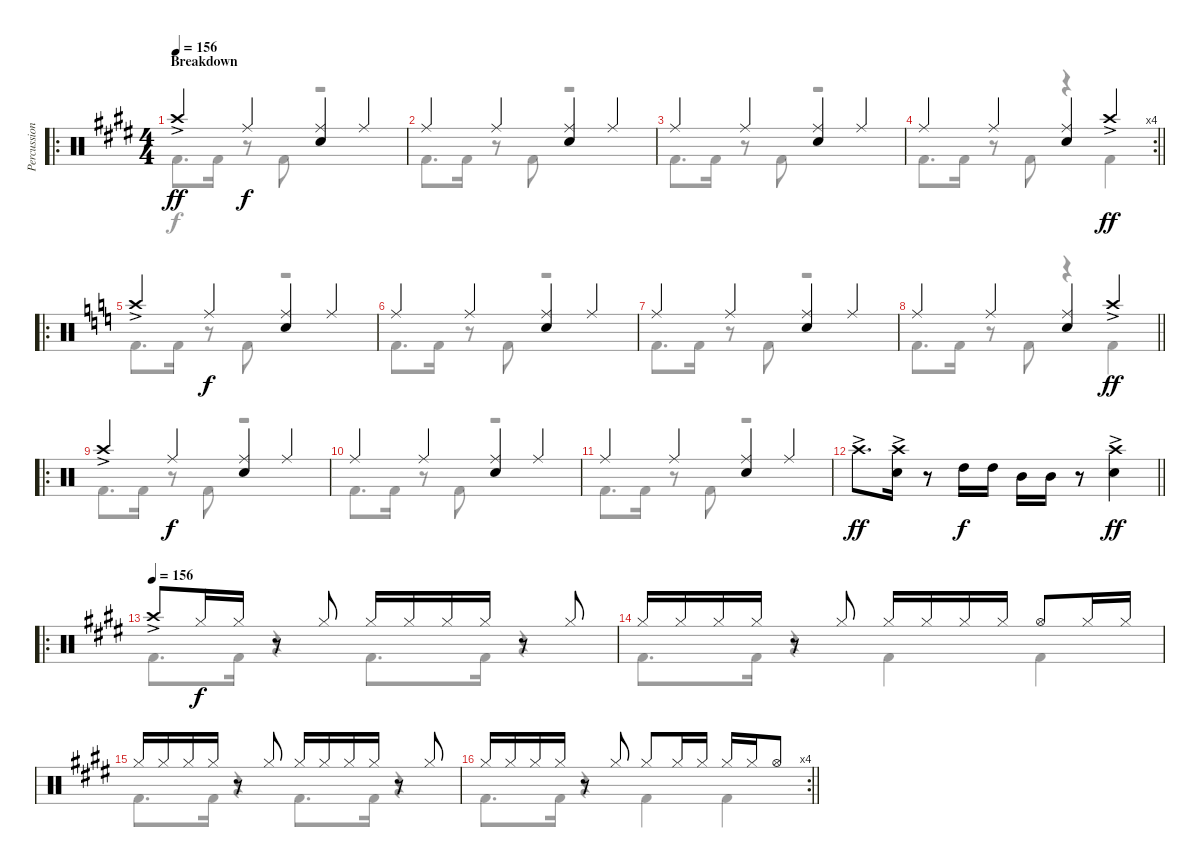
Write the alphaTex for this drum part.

\track ("Percussion" "Percussion") {instrument percussion}
\staff {score}
\articulation defaults
\voice
\ro
\ts (4 4)
\section ("" "Breakdown")
\tempo 156
\clef neutral
\ks c#minor "Crash high (hit)"{ac}.4{dy ff} "Ride (middle)".4{dy f}
("Ride (middle)" "Snare (hit) 2").4 "Ride (middle)".4 |
"Ride (middle)".4 "Ride (middle)".4 ("Ride (middle)" "Snare (hit) 2").4 "Ride (middle)".4 |
"Ride (middle)".4 "Ride (middle)".4 ("Ride (middle)" "Snare (hit) 2").4 "Ride (middle)".4 |
\rc 4
\barLineRight lightlight "Ride (middle)".4 "Ride (middle)".4
("Ride (middle)" "Snare (hit) 2").4 "Crash high (hit)"{ac}.4{dy ff} |
\ro
\ks c "Crash high (hit)"{ac}.4 "Ride (middle)".4{dy f}
("Ride (middle)" "Snare (hit) 2").4 "Ride (middle)".4 |
"Ride (middle)".4 "Ride (middle)".4 ("Ride (middle)" "Snare (hit) 2").4 "Ride (middle)".4 |
"Ride (middle)".4 "Ride (middle)".4 ("Ride (middle)" "Snare (hit) 2").4 "Ride (middle)".4 |
\barLineRight lightlight "Ride (middle)".4 "Ride (middle)".4
("Ride (middle)" "Snare (hit) 2").4 "Crash high (hit)"{ac}.4{dy ff} |
\ro "Crash high (hit)"{ac}.4 "Ride (middle)".4{dy f}
("Ride (middle)" "Snare (hit) 2").4 "Ride (middle)".4 |
"Ride (middle)".4 "Ride (middle)".4 ("Ride (middle)" "Snare (hit) 2").4 "Ride (middle)".4 |
"Ride (middle)".4 "Ride (middle)".4 ("Ride (middle)" "Snare (hit) 2").4 "Ride (middle)".4 |
\barLineRight lightlight "Crash high (hit)"{ac}.8{d dy ff}
("Crash high (hit)"{ac} "Snare (hit) 2").16 r.8 "High Tom (hit)".16{dy f} "High Tom (hit)".16 "Mid Tom (hit)".16 "Mid Tom (hit)".16 r.8 ("Crash high (hit)"{ac} "Snare (hit) 2").4{dy ff} |
\ro
\tempo 156
\ks c#minor "Crash high (hit)"{ac}.8 "Hi-Hat (closed)".16{dy f} "Hi-Hat (closed)".16
r.8 "Hi-Hat (closed)".8 "Hi-Hat (closed)".16 "Hi-Hat (closed)".16 "Hi-Hat (closed)".16 "Hi-Hat (closed)".16 r.8 "Hi-Hat (closed)".8 |
"Hi-Hat (closed)".16 "Hi-Hat (closed)".16 "Hi-Hat (closed)".16 "Hi-Hat (closed)".16 r.8 "Hi-Hat (closed)".8 "Hi-Hat (closed)".16 "Hi-Hat (closed)".16 "Hi-Hat (closed)".16 "Hi-Hat (closed)".16 "Hi-Hat (open)".8 "Hi-Hat (closed)".16 "Hi-Hat (closed)".16 |
"Hi-Hat (closed)".16 "Hi-Hat (closed)".16 "Hi-Hat (closed)".16 "Hi-Hat (closed)".16 r.8 "Hi-Hat (closed)".8 "Hi-Hat (closed)".16 "Hi-Hat (closed)".16 "Hi-Hat (closed)".16 "Hi-Hat (closed)".16 r.8 "Hi-Hat (closed)".8 |
\rc 4
\barLineRight lightlight "Hi-Hat (closed)".16 "Hi-Hat (closed)".16 "Hi-Hat (closed)".16 "Hi-Hat (closed)".16
r.8 "Hi-Hat (closed)".8 "Hi-Hat (closed)".8 "Hi-Hat (closed)".16 "Hi-Hat (closed)".16 "Hi-Hat (closed)".16 "Hi-Hat (closed)".16 "Hi-Hat (open)".8
\voice
\clef neutral
\ottava regular
\simile none
\ks c#minor "Kick (hit) 2".8{d dy f} "Kick (hit) 2".16
r.8 "Kick (hit) 2".8 r.2 |
"Kick (hit) 2".8{d} "Kick (hit) 2".16 r.8 "Kick (hit) 2".8 r.2 |
"Kick (hit) 2".8{d} "Kick (hit) 2".16 r.8 "Kick (hit) 2".8 r.2 |
\barLineRight lightlight "Kick (hit) 2".8{d} "Kick (hit) 2".16
r.8 "Kick (hit) 2".8 r.4 "Kick (hit) 2".4 |
\ks c "Kick (hit) 2".8{d} "Kick (hit) 2".16
r.8 "Kick (hit) 2".8 r.2 |
"Kick (hit) 2".8{d} "Kick (hit) 2".16 r.8 "Kick (hit) 2".8 r.2 |
"Kick (hit) 2".8{d} "Kick (hit) 2".16 r.8 "Kick (hit) 2".8 r.2 |
\barLineRight lightlight "Kick (hit) 2".8{d} "Kick (hit) 2".16
r.8 "Kick (hit) 2".8 r.4 "Kick (hit) 2".4 |
"Kick (hit) 2".8{d} "Kick (hit) 2".16 r.8 "Kick (hit) 2".8 r.2 |
"Kick (hit) 2".8{d} "Kick (hit) 2".16 r.8 "Kick (hit) 2".8 r.2 |
"Kick (hit) 2".8{d} "Kick (hit) 2".16 r.8 "Kick (hit) 2".8 r.2 |
\barLineRight lightlight
|
\ks c#minor "Kick (hit) 2".8{d} "Kick (hit) 2".16
r.4 "Kick (hit) 2".8{d} "Kick (hit) 2".16 r.4 |
"Kick (hit) 2".8{d} "Kick (hit) 2".16 r.4 "Kick (hit) 2".4 "Kick (hit) 2".4 |
"Kick (hit) 2".8{d} "Kick (hit) 2".16 r.4 "Kick (hit) 2".8{d} "Kick (hit) 2".16 r.4 |
\barLineRight lightlight "Kick (hit) 2".8{d} "Kick (hit) 2".16
r.4 "Kick (hit) 2".4 "Kick (hit) 2".4
